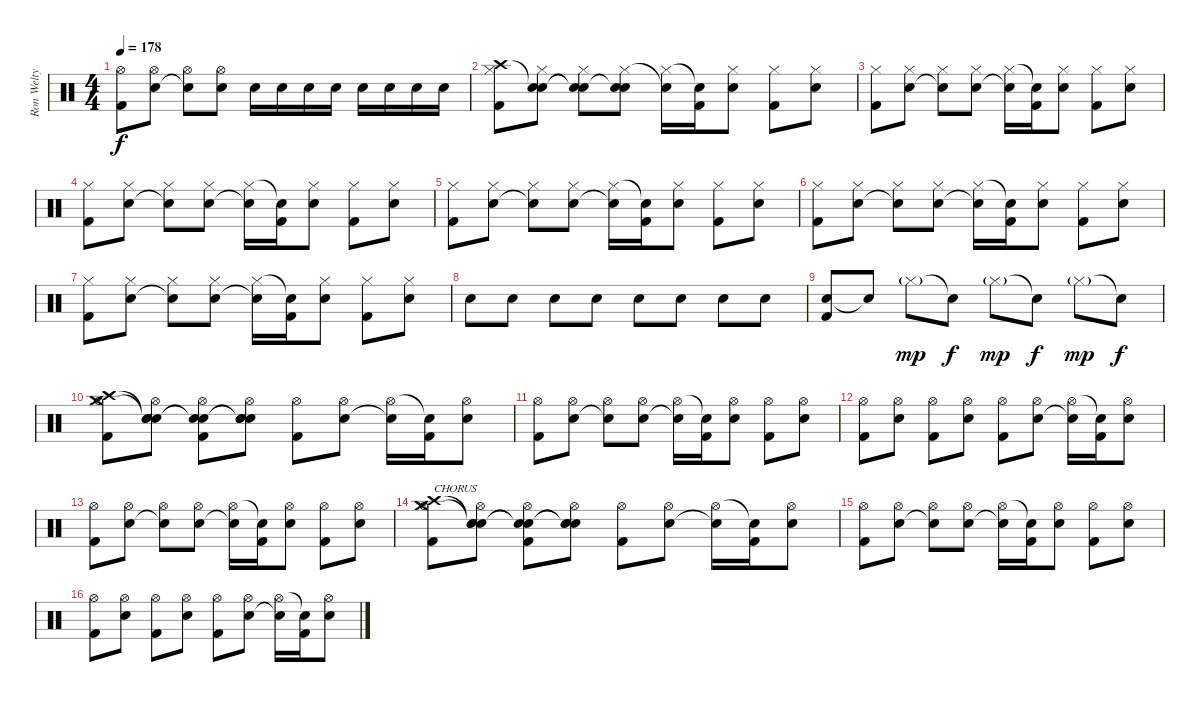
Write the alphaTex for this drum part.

\track ("Ron Welty (Drums)" "Ron Welty ") {instrument percussion}
\staff {score}
\articulation defaults
\ts (4 4)
\tempo 178
\clef neutral
\ks c
("Hi-Hat (open)" "Kick (hit) 2").8{dy f} ("Hi-Hat (open)" "Electric Snare (hit)").8 ("Hi-Hat (open)" "Snare (hit)"{t}).8 ("Hi-Hat (open)" "Electric Snare (hit)").8 "Electric Snare (hit)".16 "Electric Snare (hit)".16 "Electric Snare (hit)".16 "Electric Snare (hit)".16 "Electric Snare (hit)".16 "Electric Snare (hit)".16 "Electric Snare (hit)".16 "Electric Snare (hit)".16 |
("Crash high (hit)" "Hi-Hat (closed)" "Kick (hit) 2").8 ("Snare (hit)"{t} "Hi-Hat (closed)" "Electric Snare (hit)").8 ("Snare (hit)"{t} "Hi-Hat (closed)" "Snare (hit)"{t}).8 ("Snare (hit)"{t} "Hi-Hat (closed)" "Electric Snare (hit)").8 ("Hi-Hat (closed)" "Snare (hit)"{t}).16 ("Snare (hit)"{t} "Kick (hit) 2").16 ("Hi-Hat (closed)" "Electric Snare (hit)").8 ("Hi-Hat (closed)" "Kick (hit) 2").8 ("Hi-Hat (closed)" "Electric Snare (hit)").8 |
("Hi-Hat (closed)" "Kick (hit) 2").8 ("Hi-Hat (closed)" "Electric Snare (hit)").8 ("Hi-Hat (closed)" "Snare (hit)"{t}).8 ("Hi-Hat (closed)" "Electric Snare (hit)").8 ("Hi-Hat (closed)" "Snare (hit)"{t}).16 ("Snare (hit)"{t} "Kick (hit) 2").16 ("Hi-Hat (closed)" "Electric Snare (hit)").8 ("Hi-Hat (closed)" "Kick (hit) 2").8 ("Hi-Hat (closed)" "Electric Snare (hit)").8 |
("Hi-Hat (closed)" "Kick (hit) 2").8 ("Hi-Hat (closed)" "Electric Snare (hit)").8 ("Hi-Hat (closed)" "Snare (hit)"{t}).8 ("Hi-Hat (closed)" "Electric Snare (hit)").8 ("Hi-Hat (closed)" "Snare (hit)"{t}).16 ("Snare (hit)"{t} "Kick (hit) 2").16 ("Hi-Hat (closed)" "Electric Snare (hit)").8 ("Hi-Hat (closed)" "Kick (hit) 2").8 ("Hi-Hat (closed)" "Electric Snare (hit)").8 |
("Hi-Hat (closed)" "Kick (hit) 2").8 ("Hi-Hat (closed)" "Electric Snare (hit)").8 ("Hi-Hat (closed)" "Snare (hit)"{t}).8 ("Hi-Hat (closed)" "Electric Snare (hit)").8 ("Hi-Hat (closed)" "Snare (hit)"{t}).16 ("Snare (hit)"{t} "Kick (hit) 2").16 ("Hi-Hat (closed)" "Electric Snare (hit)").8 ("Hi-Hat (closed)" "Kick (hit) 2").8 ("Hi-Hat (closed)" "Electric Snare (hit)").8 |
("Hi-Hat (closed)" "Kick (hit) 2").8 ("Hi-Hat (closed)" "Electric Snare (hit)").8 ("Hi-Hat (closed)" "Snare (hit)"{t}).8 ("Hi-Hat (closed)" "Electric Snare (hit)").8 ("Hi-Hat (closed)" "Snare (hit)"{t}).16 ("Snare (hit)"{t} "Kick (hit) 2").16 ("Hi-Hat (closed)" "Electric Snare (hit)").8 ("Hi-Hat (closed)" "Kick (hit) 2").8 ("Hi-Hat (closed)" "Electric Snare (hit)").8 |
("Hi-Hat (closed)" "Kick (hit) 2").8 ("Hi-Hat (closed)" "Electric Snare (hit)").8 ("Hi-Hat (closed)" "Snare (hit)"{t}).8 ("Hi-Hat (closed)" "Electric Snare (hit)").8 ("Hi-Hat (closed)" "Snare (hit)"{t}).16 ("Snare (hit)"{t} "Kick (hit) 2").16 ("Hi-Hat (closed)" "Electric Snare (hit)").8 ("Hi-Hat (closed)" "Kick (hit) 2").8 ("Hi-Hat (closed)" "Electric Snare (hit)").8 |
"Electric Snare (hit)".8 "Electric Snare (hit)".8 "Electric Snare (hit)".8 "Electric Snare (hit)".8 "Electric Snare (hit)".8 "Electric Snare (hit)".8 "Electric Snare (hit)".8 "Electric Snare (hit)".8 |
("Electric Snare (hit)" "Kick (hit) 2").8 "Snare (hit)"{t}.8 "Hi-Hat (closed)"{g}.8{dy mp} "Snare (hit)"{t}.8{dy f} "Hi-Hat (closed)"{g}.8{dy mp} "Snare (hit)"{t}.8{dy f} "Hi-Hat (closed)"{g}.8{dy mp} "Snare (hit)"{t}.8{dy f} |
("Crash medium (hit)" "Crash high (hit)" "Hi-Hat (open)" "Kick (hit) 2").8 ("Snare (hit)"{t} "Snare (hit)"{t} "Hi-Hat (open)" "Electric Snare (hit)").8 ("Snare (hit)"{t} "Snare (hit)"{t} "Hi-Hat (open)" "Kick (hit) 2").8 ("Snare (hit)"{t} "Snare (hit)"{t} "Hi-Hat (open)" "Electric Snare (hit)").8 ("Hi-Hat (open)" "Kick (hit) 2").8 ("Hi-Hat (open)" "Electric Snare (hit)").8 ("Hi-Hat (open)" "Snare (hit)"{t}).16 ("Snare (hit)"{t} "Kick (hit) 2").16 ("Hi-Hat (open)" "Electric Snare (hit)").8 |
("Hi-Hat (open)" "Kick (hit) 2").8 ("Hi-Hat (open)" "Electric Snare (hit)").8 ("Hi-Hat (open)" "Snare (hit)"{t}).8 ("Hi-Hat (open)" "Electric Snare (hit)").8 ("Hi-Hat (open)" "Snare (hit)"{t}).16 ("Snare (hit)"{t} "Kick (hit) 2").16 ("Hi-Hat (open)" "Electric Snare (hit)").8 ("Hi-Hat (open)" "Kick (hit) 2").8 ("Hi-Hat (open)" "Electric Snare (hit)").8 |
("Hi-Hat (open)" "Kick (hit) 2").8 ("Hi-Hat (open)" "Electric Snare (hit)").8 ("Hi-Hat (open)" "Kick (hit) 2").8 ("Hi-Hat (open)" "Electric Snare (hit)").8 ("Hi-Hat (open)" "Kick (hit) 2").8 ("Hi-Hat (open)" "Electric Snare (hit)").8 ("Hi-Hat (open)" "Snare (hit)"{t}).16 ("Snare (hit)"{t} "Kick (hit) 2").16 ("Hi-Hat (open)" "Electric Snare (hit)").8 |
("Hi-Hat (open)" "Kick (hit) 2").8 ("Hi-Hat (open)" "Electric Snare (hit)").8 ("Hi-Hat (open)" "Snare (hit)"{t}).8 ("Hi-Hat (open)" "Electric Snare (hit)").8 ("Hi-Hat (open)" "Snare (hit)"{t}).16 ("Snare (hit)"{t} "Kick (hit) 2").16 ("Hi-Hat (open)" "Electric Snare (hit)").8 ("Hi-Hat (open)" "Kick (hit) 2").8 ("Hi-Hat (open)" "Electric Snare (hit)").8 |
("Crash medium (hit)" "Crash high (hit)" "Hi-Hat (open)" "Kick (hit) 2").8{txt "CHORUS"} ("Snare (hit)"{t} "Snare (hit)"{t} "Hi-Hat (open)" "Electric Snare (hit)").8 ("Snare (hit)"{t} "Snare (hit)"{t} "Hi-Hat (open)" "Kick (hit) 2").8 ("Snare (hit)"{t} "Snare (hit)"{t} "Hi-Hat (open)" "Electric Snare (hit)").8 ("Hi-Hat (open)" "Kick (hit) 2").8 ("Hi-Hat (open)" "Electric Snare (hit)").8 ("Hi-Hat (open)" "Snare (hit)"{t}).16 ("Snare (hit)"{t} "Kick (hit) 2").16 ("Hi-Hat (open)" "Electric Snare (hit)").8 |
("Hi-Hat (open)" "Kick (hit) 2").8 ("Hi-Hat (open)" "Electric Snare (hit)").8 ("Hi-Hat (open)" "Snare (hit)"{t}).8 ("Hi-Hat (open)" "Electric Snare (hit)").8 ("Hi-Hat (open)" "Snare (hit)"{t}).16 ("Snare (hit)"{t} "Kick (hit) 2").16 ("Hi-Hat (open)" "Electric Snare (hit)").8 ("Hi-Hat (open)" "Kick (hit) 2").8 ("Hi-Hat (open)" "Electric Snare (hit)").8 |
("Hi-Hat (open)" "Kick (hit) 2").8 ("Hi-Hat (open)" "Electric Snare (hit)").8 ("Hi-Hat (open)" "Kick (hit) 2").8 ("Hi-Hat (open)" "Electric Snare (hit)").8 ("Hi-Hat (open)" "Kick (hit) 2").8 ("Hi-Hat (open)" "Electric Snare (hit)").8 ("Hi-Hat (open)" "Snare (hit)"{t}).16 ("Snare (hit)"{t} "Kick (hit) 2").16 ("Hi-Hat (open)" "Electric Snare (hit)").8
